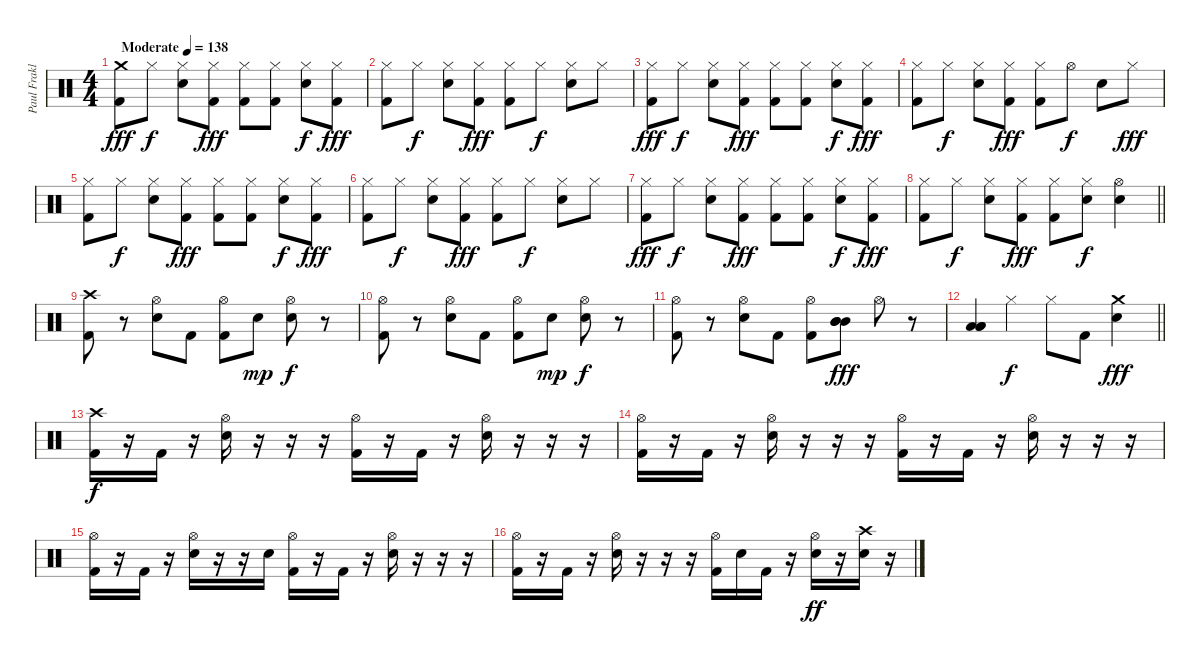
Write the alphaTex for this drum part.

\track ("Paul Fraklin Percusion" "Paul Frakl") {instrument percussion}
\staff {score}
\articulation defaults
\ts (4 4)
\tempo (138 "Moderate")
\clef neutral
\ks c
("Crash medium (hit)" "Kick (hit) 2").8{dy fff} "Hi-Hat (closed)".8{dy f} ("Hi-Hat (closed)" "Electric Snare (hit)").8 ("Hi-Hat (closed)" "Kick (hit) 2").8{dy fff} ("Hi-Hat (closed)" "Kick (hit) 2").8 ("Hi-Hat (closed)" "Kick (hit) 2").8 ("Hi-Hat (closed)" "Electric Snare (hit)").8{dy f} ("Hi-Hat (closed)" "Kick (hit) 2").8{dy fff} |
("Hi-Hat (closed)" "Kick (hit) 2").8 "Hi-Hat (closed)".8{dy f} ("Hi-Hat (closed)" "Electric Snare (hit)").8 ("Hi-Hat (closed)" "Kick (hit) 2").8{dy fff} ("Hi-Hat (closed)" "Kick (hit) 2").8 "Hi-Hat (closed)".8{dy f} ("Hi-Hat (closed)" "Electric Snare (hit)").8 "Hi-Hat (closed)".8 |
("Hi-Hat (closed)" "Kick (hit) 2").8{dy fff} "Hi-Hat (closed)".8{dy f} ("Hi-Hat (closed)" "Electric Snare (hit)").8 ("Hi-Hat (closed)" "Kick (hit) 2").8{dy fff} ("Hi-Hat (closed)" "Kick (hit) 2").8 ("Hi-Hat (closed)" "Kick (hit) 2").8 ("Hi-Hat (closed)" "Electric Snare (hit)").8{dy f} ("Hi-Hat (closed)" "Kick (hit) 2").8{dy fff} |
("Hi-Hat (closed)" "Kick (hit) 2").8 "Hi-Hat (closed)".8{dy f} ("Hi-Hat (closed)" "Electric Snare (hit)").8 ("Hi-Hat (closed)" "Kick (hit) 2").8{dy fff} ("Hi-Hat (closed)" "Kick (hit) 2").8 "Hi-Hat (open)".8{dy f} "Electric Snare (hit)".8 "Hi-Hat (closed)".8{dy fff} |
("Hi-Hat (closed)" "Kick (hit) 2").8 "Hi-Hat (closed)".8{dy f} ("Hi-Hat (closed)" "Electric Snare (hit)").8 ("Hi-Hat (closed)" "Kick (hit) 2").8{dy fff} ("Hi-Hat (closed)" "Kick (hit) 2").8 ("Hi-Hat (closed)" "Kick (hit) 2").8 ("Hi-Hat (closed)" "Electric Snare (hit)").8{dy f} ("Hi-Hat (closed)" "Kick (hit) 2").8{dy fff} |
("Hi-Hat (closed)" "Kick (hit) 2").8 "Hi-Hat (closed)".8{dy f} ("Hi-Hat (closed)" "Electric Snare (hit)").8 ("Hi-Hat (closed)" "Kick (hit) 2").8{dy fff} ("Hi-Hat (closed)" "Kick (hit) 2").8 "Hi-Hat (closed)".8{dy f} ("Hi-Hat (closed)" "Electric Snare (hit)").8 "Hi-Hat (closed)".8 |
("Hi-Hat (closed)" "Kick (hit) 2").8{dy fff} "Hi-Hat (closed)".8{dy f} ("Hi-Hat (closed)" "Electric Snare (hit)").8 ("Hi-Hat (closed)" "Kick (hit) 2").8{dy fff} ("Hi-Hat (closed)" "Kick (hit) 2").8 ("Hi-Hat (closed)" "Kick (hit) 2").8 ("Hi-Hat (closed)" "Electric Snare (hit)").8{dy f} ("Hi-Hat (closed)" "Kick (hit) 2").8{dy fff} |
\barLineRight lightlight
("Hi-Hat (closed)" "Kick (hit) 2").8 "Hi-Hat (closed)".8{dy f} ("Hi-Hat (closed)" "Electric Snare (hit)").8 ("Hi-Hat (closed)" "Kick (hit) 2").8{dy fff} ("Hi-Hat (closed)" "Kick (hit) 2").8 ("Hi-Hat (closed)" "Electric Snare (hit)").8{dy f} ("Hi-Hat (open)" "Electric Snare (hit)").4 |
("Crash high (hit)" "Kick (hit) 2").8 r.8 ("Hi-Hat (open)" "Electric Snare (hit)").8 "Kick (hit) 2".8 ("Hi-Hat (open)" "Kick (hit) 2").8 "Electric Snare (hit)".8{dy mp} ("Hi-Hat (open)" "Electric Snare (hit)").8{dy f} r.8 |
("Hi-Hat (open)" "Kick (hit) 2").8 r.8 ("Hi-Hat (open)" "Electric Snare (hit)").8 "Kick (hit) 2".8 ("Hi-Hat (open)" "Kick (hit) 2").8 "Electric Snare (hit)".8{dy mp} ("Hi-Hat (open)" "Electric Snare (hit)").8{dy f} r.8 |
("Hi-Hat (open)" "Kick (hit) 2").8 r.8 ("Hi-Hat (open)" "Electric Snare (hit)").8 "Kick (hit) 2".8 ("Hi-Hat (open)" "Kick (hit) 2").8 ("Mid Tom (hit)" "Mid Tom (hit)" "Mid Tom (hit)").8{dy fff} "Hi-Hat (open)".8 r.8 |
\barLineRight lightlight
("Low Tom (hit)" "Low Tom (hit)" "Low Tom (hit)").4 "Hi-Hat (closed)".4{dy f} "Hi-Hat (closed)".8 "Kick (hit) 2".8 ("Crash medium (hit)" "Electric Snare (hit)").4{dy fff} |
("Crash high (hit)" "Kick (hit) 2").16{dy f} r.16 "Kick (hit) 2".16 r.16 ("Hi-Hat (open)" "Electric Snare (hit)").16 r.16 r.16 r.16 ("Hi-Hat (open)" "Kick (hit) 2").16 r.16 "Kick (hit) 2".16 r.16 ("Hi-Hat (open)" "Electric Snare (hit)").16 r.16 r.16 r.16 |
("Hi-Hat (open)" "Kick (hit) 2").16 r.16 "Kick (hit) 2".16 r.16 ("Hi-Hat (open)" "Electric Snare (hit)").16 r.16 r.16 r.16 ("Hi-Hat (open)" "Kick (hit) 2").16 r.16 "Kick (hit) 2".16 r.16 ("Hi-Hat (open)" "Electric Snare (hit)").16 r.16 r.16 r.16 |
("Hi-Hat (open)" "Kick (hit) 2").16 r.16 "Kick (hit) 2".16 r.16 ("Hi-Hat (open)" "Electric Snare (hit)").16 r.16 r.16 "Electric Snare (hit)".16 ("Hi-Hat (open)" "Kick (hit) 2").16 r.16 "Kick (hit) 2".16 r.16 ("Hi-Hat (open)" "Electric Snare (hit)").16 r.16 r.16 r.16 |
("Hi-Hat (open)" "Kick (hit) 2").16 r.16 "Kick (hit) 2".16 r.16 ("Hi-Hat (open)" "Electric Snare (hit)").16 r.16 r.16 r.16 ("Hi-Hat (open)" "Kick (hit) 2").16 "Electric Snare (hit)".16 "Kick (hit) 2".16 r.16 ("Hi-Hat (open)" "Electric Snare (hit)").16{dy ff} r.16 ("Crash high (hit)" "Electric Snare (hit)").16 r.16
